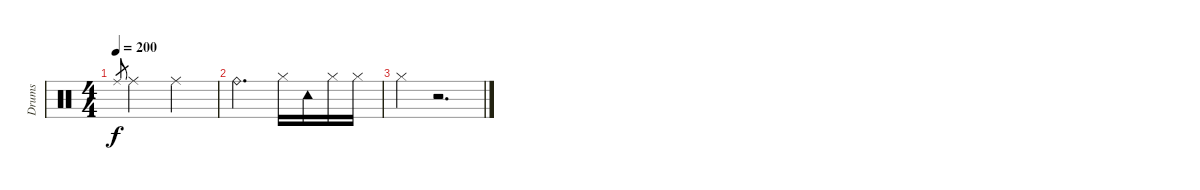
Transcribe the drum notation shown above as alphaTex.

\track ("Drums" "Drums") {instrument percussion}
\staff {score}
\articulation defaults
\ts (4 4)
\tempo 200
\clef neutral
\ks c "Ride (middle)".8{gr dy f} "Ride (middle)".2 "Ride (middle)".2
|
"Ride (bell)".2{d} "Hi-Hat (closed)".16 "Tambourine (hit)".16 "Hi-Hat (closed)".16 "Hi-Hat (closed)".16 |
"Hi-Hat (closed)".4 r.2{d}
